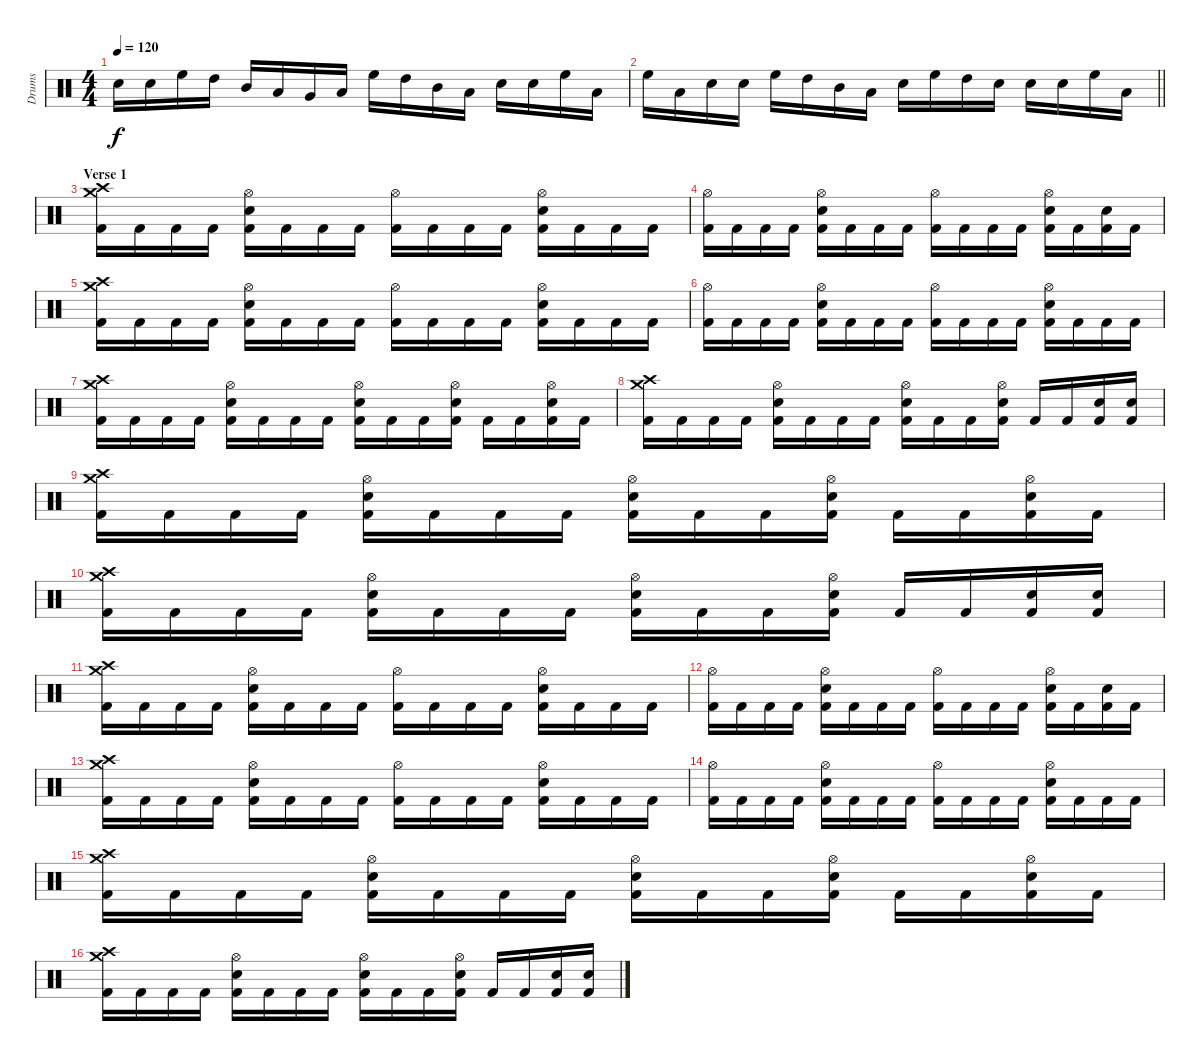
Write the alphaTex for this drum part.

\track ("Drums" "Drums") {instrument percussion}
\staff {score}
\articulation defaults
\ts (4 4)
\tempo 120
\clef neutral
\ks c "Electric Snare (hit)".16{dy f} "Electric Snare (hit)".16 "High Floor Tom (hit)".16 "High Tom (hit)".16 "Mid Tom (hit)".16 "Low Tom (hit)".16 "Very Low Tom (hit)".16 "Low Floor Tom (hit)".16 "High Floor Tom (hit)".16 "High Tom (hit)".16 "Mid Tom (hit)".16 "Low Tom (hit)".16 "Electric Snare (hit)".16 "Electric Snare (hit)".16 "High Floor Tom (hit)".16 "Low Tom (hit)".16
|
\barLineRight lightlight "High Floor Tom (hit)".16 "Low Tom (hit)".16 "Electric Snare (hit)".16 "Electric Snare (hit)".16 "High Floor Tom (hit)".16 "High Tom (hit)".16 "Mid Tom (hit)".16 "Low Tom (hit)".16 "Electric Snare (hit)".16 "High Floor Tom (hit)".16 "High Tom (hit)".16 "Electric Snare (hit)".16 "Electric Snare (hit)".16 "Electric Snare (hit)".16 "High Floor Tom (hit)".16 "Low Tom (hit)".16
|
\section ("" "Verse 1")
("Crash medium (hit)" "Crash high (hit)" "Kick (hit) 2").16 "Kick (hit) 2".16 "Kick (hit) 2".16 "Kick (hit) 2".16 ("Hi-Hat (open)" "Electric Snare (hit)" "Kick (hit) 2").16 "Kick (hit) 2".16 "Kick (hit) 2".16 "Kick (hit) 2".16 ("Hi-Hat (open)" "Kick (hit) 2").16 "Kick (hit) 2".16 "Kick (hit) 2".16 "Kick (hit) 2".16 ("Hi-Hat (open)" "Electric Snare (hit)" "Kick (hit) 2").16 "Kick (hit) 2".16 "Kick (hit) 2".16 "Kick (hit) 2".16 |
("Hi-Hat (open)" "Kick (hit) 2").16 "Kick (hit) 2".16 "Kick (hit) 2".16 "Kick (hit) 2".16 ("Hi-Hat (open)" "Electric Snare (hit)" "Kick (hit) 2").16 "Kick (hit) 2".16 "Kick (hit) 2".16 "Kick (hit) 2".16 ("Hi-Hat (open)" "Kick (hit) 2").16 "Kick (hit) 2".16 "Kick (hit) 2".16 "Kick (hit) 2".16 ("Hi-Hat (open)" "Electric Snare (hit)" "Kick (hit) 2").16 "Kick (hit) 2".16 ("Electric Snare (hit)" "Kick (hit) 2").16 "Kick (hit) 2".16 |
("Crash medium (hit)" "Crash high (hit)" "Kick (hit) 2").16 "Kick (hit) 2".16 "Kick (hit) 2".16 "Kick (hit) 2".16 ("Hi-Hat (open)" "Electric Snare (hit)" "Kick (hit) 2").16 "Kick (hit) 2".16 "Kick (hit) 2".16 "Kick (hit) 2".16 ("Hi-Hat (open)" "Kick (hit) 2").16 "Kick (hit) 2".16 "Kick (hit) 2".16 "Kick (hit) 2".16 ("Hi-Hat (open)" "Electric Snare (hit)" "Kick (hit) 2").16 "Kick (hit) 2".16 "Kick (hit) 2".16 "Kick (hit) 2".16 |
("Hi-Hat (open)" "Kick (hit) 2").16 "Kick (hit) 2".16 "Kick (hit) 2".16 "Kick (hit) 2".16 ("Hi-Hat (open)" "Electric Snare (hit)" "Kick (hit) 2").16 "Kick (hit) 2".16 "Kick (hit) 2".16 "Kick (hit) 2".16 ("Hi-Hat (open)" "Kick (hit) 2").16 "Kick (hit) 2".16 "Kick (hit) 2".16 "Kick (hit) 2".16 ("Hi-Hat (open)" "Electric Snare (hit)" "Kick (hit) 2").16 "Kick (hit) 2".16 "Kick (hit) 2".16 "Kick (hit) 2".16 |
("Crash medium (hit)" "Crash high (hit)" "Kick (hit) 2").16 "Kick (hit) 2".16 "Kick (hit) 2".16 "Kick (hit) 2".16 ("Hi-Hat (open)" "Electric Snare (hit)" "Kick (hit) 2").16 "Kick (hit) 2".16 "Kick (hit) 2".16 "Kick (hit) 2".16 ("Hi-Hat (open)" "Electric Snare (hit)" "Kick (hit) 2").16 "Kick (hit) 2".16 "Kick (hit) 2".16 ("Hi-Hat (open)" "Electric Snare (hit)" "Kick (hit) 2").16 "Kick (hit) 2".16 "Kick (hit) 2".16 ("Hi-Hat (open)" "Electric Snare (hit)" "Kick (hit) 2").16 "Kick (hit) 2".16 |
("Crash medium (hit)" "Crash high (hit)" "Kick (hit) 2").16 "Kick (hit) 2".16 "Kick (hit) 2".16 "Kick (hit) 2".16 ("Hi-Hat (open)" "Electric Snare (hit)" "Kick (hit) 2").16 "Kick (hit) 2".16 "Kick (hit) 2".16 "Kick (hit) 2".16 ("Hi-Hat (open)" "Electric Snare (hit)" "Kick (hit) 2").16 "Kick (hit) 2".16 "Kick (hit) 2".16 ("Hi-Hat (open)" "Electric Snare (hit)" "Kick (hit) 2").16 "Kick (hit) 2".16 "Kick (hit) 2".16 ("Electric Snare (hit)" "Kick (hit) 2").16 ("Electric Snare (hit)" "Kick (hit) 2").16 |
("Crash medium (hit)" "Crash high (hit)" "Kick (hit) 2").16 "Kick (hit) 2".16 "Kick (hit) 2".16 "Kick (hit) 2".16 ("Hi-Hat (open)" "Electric Snare (hit)" "Kick (hit) 2").16 "Kick (hit) 2".16 "Kick (hit) 2".16 "Kick (hit) 2".16 ("Hi-Hat (open)" "Electric Snare (hit)" "Kick (hit) 2").16 "Kick (hit) 2".16 "Kick (hit) 2".16 ("Hi-Hat (open)" "Electric Snare (hit)" "Kick (hit) 2").16 "Kick (hit) 2".16 "Kick (hit) 2".16 ("Hi-Hat (open)" "Electric Snare (hit)" "Kick (hit) 2").16 "Kick (hit) 2".16 |
("Crash medium (hit)" "Crash high (hit)" "Kick (hit) 2").16 "Kick (hit) 2".16 "Kick (hit) 2".16 "Kick (hit) 2".16 ("Hi-Hat (open)" "Electric Snare (hit)" "Kick (hit) 2").16 "Kick (hit) 2".16 "Kick (hit) 2".16 "Kick (hit) 2".16 ("Hi-Hat (open)" "Electric Snare (hit)" "Kick (hit) 2").16 "Kick (hit) 2".16 "Kick (hit) 2".16 ("Hi-Hat (open)" "Electric Snare (hit)" "Kick (hit) 2").16 "Kick (hit) 2".16 "Kick (hit) 2".16 ("Electric Snare (hit)" "Kick (hit) 2").16 ("Electric Snare (hit)" "Kick (hit) 2").16 |
("Crash medium (hit)" "Crash high (hit)" "Kick (hit) 2").16 "Kick (hit) 2".16 "Kick (hit) 2".16 "Kick (hit) 2".16 ("Hi-Hat (open)" "Electric Snare (hit)" "Kick (hit) 2").16 "Kick (hit) 2".16 "Kick (hit) 2".16 "Kick (hit) 2".16 ("Hi-Hat (open)" "Kick (hit) 2").16 "Kick (hit) 2".16 "Kick (hit) 2".16 "Kick (hit) 2".16 ("Hi-Hat (open)" "Electric Snare (hit)" "Kick (hit) 2").16 "Kick (hit) 2".16 "Kick (hit) 2".16 "Kick (hit) 2".16 |
("Hi-Hat (open)" "Kick (hit) 2").16 "Kick (hit) 2".16 "Kick (hit) 2".16 "Kick (hit) 2".16 ("Hi-Hat (open)" "Electric Snare (hit)" "Kick (hit) 2").16 "Kick (hit) 2".16 "Kick (hit) 2".16 "Kick (hit) 2".16 ("Hi-Hat (open)" "Kick (hit) 2").16 "Kick (hit) 2".16 "Kick (hit) 2".16 "Kick (hit) 2".16 ("Hi-Hat (open)" "Electric Snare (hit)" "Kick (hit) 2").16 "Kick (hit) 2".16 ("Electric Snare (hit)" "Kick (hit) 2").16 "Kick (hit) 2".16 |
("Crash medium (hit)" "Crash high (hit)" "Kick (hit) 2").16 "Kick (hit) 2".16 "Kick (hit) 2".16 "Kick (hit) 2".16 ("Hi-Hat (open)" "Electric Snare (hit)" "Kick (hit) 2").16 "Kick (hit) 2".16 "Kick (hit) 2".16 "Kick (hit) 2".16 ("Hi-Hat (open)" "Kick (hit) 2").16 "Kick (hit) 2".16 "Kick (hit) 2".16 "Kick (hit) 2".16 ("Hi-Hat (open)" "Electric Snare (hit)" "Kick (hit) 2").16 "Kick (hit) 2".16 "Kick (hit) 2".16 "Kick (hit) 2".16 |
("Hi-Hat (open)" "Kick (hit) 2").16 "Kick (hit) 2".16 "Kick (hit) 2".16 "Kick (hit) 2".16 ("Hi-Hat (open)" "Electric Snare (hit)" "Kick (hit) 2").16 "Kick (hit) 2".16 "Kick (hit) 2".16 "Kick (hit) 2".16 ("Hi-Hat (open)" "Kick (hit) 2").16 "Kick (hit) 2".16 "Kick (hit) 2".16 "Kick (hit) 2".16 ("Hi-Hat (open)" "Electric Snare (hit)" "Kick (hit) 2").16 "Kick (hit) 2".16 "Kick (hit) 2".16 "Kick (hit) 2".16 |
("Crash medium (hit)" "Crash high (hit)" "Kick (hit) 2").16 "Kick (hit) 2".16 "Kick (hit) 2".16 "Kick (hit) 2".16 ("Hi-Hat (open)" "Electric Snare (hit)" "Kick (hit) 2").16 "Kick (hit) 2".16 "Kick (hit) 2".16 "Kick (hit) 2".16 ("Hi-Hat (open)" "Electric Snare (hit)" "Kick (hit) 2").16 "Kick (hit) 2".16 "Kick (hit) 2".16 ("Hi-Hat (open)" "Electric Snare (hit)" "Kick (hit) 2").16 "Kick (hit) 2".16 "Kick (hit) 2".16 ("Hi-Hat (open)" "Electric Snare (hit)" "Kick (hit) 2").16 "Kick (hit) 2".16 |
("Crash medium (hit)" "Crash high (hit)" "Kick (hit) 2").16 "Kick (hit) 2".16 "Kick (hit) 2".16 "Kick (hit) 2".16 ("Hi-Hat (open)" "Electric Snare (hit)" "Kick (hit) 2").16 "Kick (hit) 2".16 "Kick (hit) 2".16 "Kick (hit) 2".16 ("Hi-Hat (open)" "Electric Snare (hit)" "Kick (hit) 2").16 "Kick (hit) 2".16 "Kick (hit) 2".16 ("Hi-Hat (open)" "Electric Snare (hit)" "Kick (hit) 2").16 "Kick (hit) 2".16 "Kick (hit) 2".16 ("Electric Snare (hit)" "Kick (hit) 2").16 ("Electric Snare (hit)" "Kick (hit) 2").16
